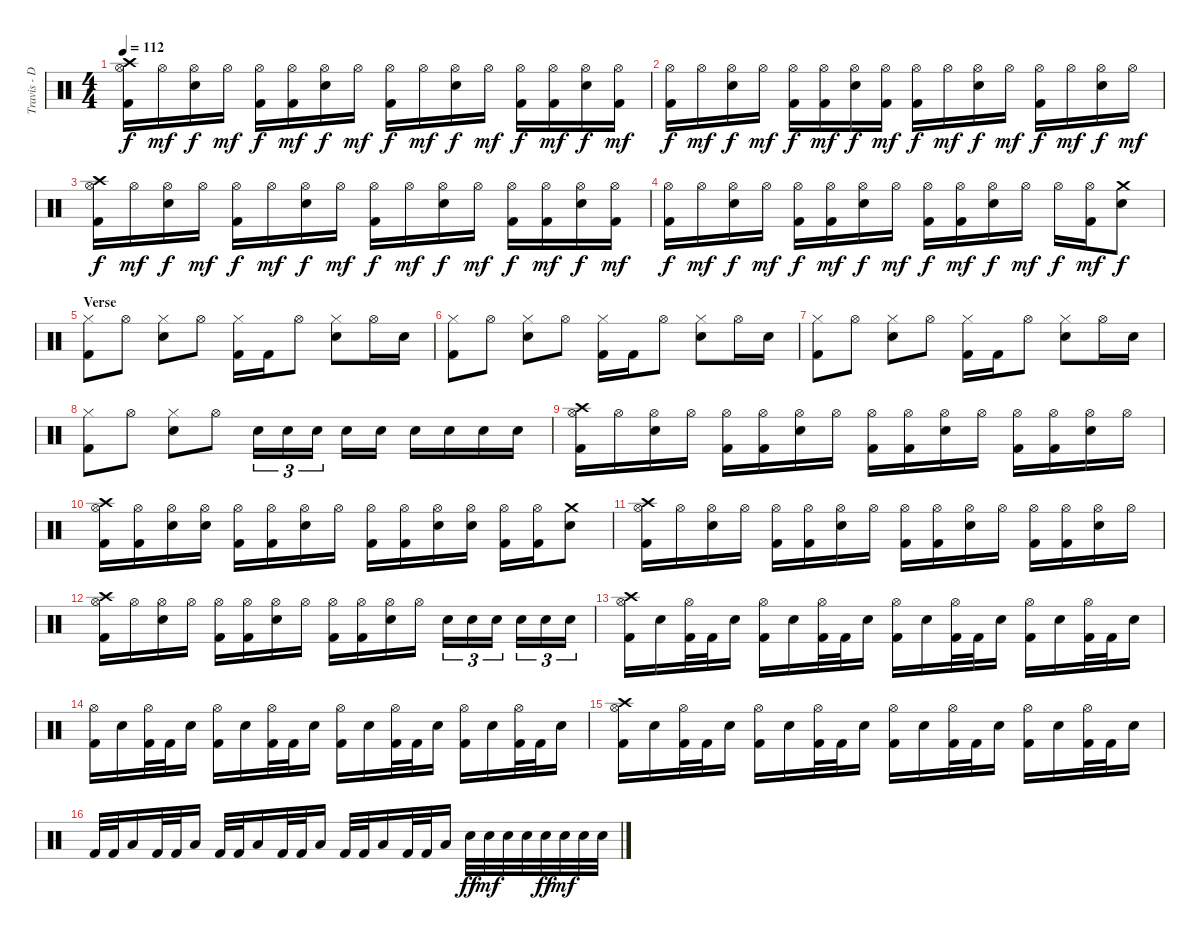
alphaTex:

\track ("Travis - Drums" "Travis - D") {instrument percussion}
\staff {score}
\articulation defaults
\ts (4 4)
\tempo 112
\clef neutral
\ks c
("Crash high (hit)" "Hi-Hat (open)" "Kick (hit) 2").16{dy f} "Hi-Hat (open)".16{dy mf} ("Hi-Hat (open)" "Electric Snare (hit)").16{dy f} "Hi-Hat (open)".16{dy mf} ("Hi-Hat (open)" "Kick (hit) 2").16{dy f} ("Hi-Hat (open)" "Kick (hit) 2").16{dy mf} ("Hi-Hat (open)" "Electric Snare (hit)").16{dy f} "Hi-Hat (open)".16{dy mf} ("Hi-Hat (open)" "Kick (hit) 2").16{dy f} "Hi-Hat (open)".16{dy mf} ("Hi-Hat (open)" "Electric Snare (hit)").16{dy f} "Hi-Hat (open)".16{dy mf} ("Hi-Hat (open)" "Kick (hit) 2").16{dy f} ("Hi-Hat (open)" "Kick (hit) 2").16{dy mf} ("Hi-Hat (open)" "Electric Snare (hit)").16{dy f} ("Hi-Hat (open)" "Kick (hit) 2").16{dy mf} |
("Hi-Hat (open)" "Kick (hit) 2").16{dy f} "Hi-Hat (open)".16{dy mf} ("Hi-Hat (open)" "Electric Snare (hit)").16{dy f} "Hi-Hat (open)".16{dy mf} ("Hi-Hat (open)" "Kick (hit) 2").16{dy f} ("Hi-Hat (open)" "Kick (hit) 2").16{dy mf} ("Hi-Hat (open)" "Electric Snare (hit)").16{dy f} ("Hi-Hat (open)" "Kick (hit) 2").16{dy mf} ("Hi-Hat (open)" "Kick (hit) 2").16{dy f} "Hi-Hat (open)".16{dy mf} ("Hi-Hat (open)" "Electric Snare (hit)").16{dy f} "Hi-Hat (open)".16{dy mf} ("Hi-Hat (open)" "Kick (hit) 2").16{dy f} "Hi-Hat (open)".16{dy mf} ("Hi-Hat (open)" "Electric Snare (hit)").16{dy f} "Hi-Hat (open)".16{dy mf} |
("Crash high (hit)" "Hi-Hat (open)" "Kick (hit) 2").16{dy f} "Hi-Hat (open)".16{dy mf} ("Hi-Hat (open)" "Electric Snare (hit)").16{dy f} "Hi-Hat (open)".16{dy mf} ("Hi-Hat (open)" "Kick (hit) 2").16{dy f} "Hi-Hat (open)".16{dy mf} ("Hi-Hat (open)" "Electric Snare (hit)").16{dy f} "Hi-Hat (open)".16{dy mf} ("Hi-Hat (open)" "Kick (hit) 2").16{dy f} "Hi-Hat (open)".16{dy mf} ("Hi-Hat (open)" "Electric Snare (hit)").16{dy f} "Hi-Hat (open)".16{dy mf} ("Hi-Hat (open)" "Kick (hit) 2").16{dy f} ("Hi-Hat (open)" "Kick (hit) 2").16{dy mf} ("Hi-Hat (open)" "Electric Snare (hit)").16{dy f} ("Hi-Hat (open)" "Kick (hit) 2").16{dy mf} |
("Hi-Hat (open)" "Kick (hit) 2").16{dy f} "Hi-Hat (open)".16{dy mf} ("Hi-Hat (open)" "Electric Snare (hit)").16{dy f} "Hi-Hat (open)".16{dy mf} ("Hi-Hat (open)" "Kick (hit) 2").16{dy f} ("Hi-Hat (open)" "Kick (hit) 2").16{dy mf} ("Hi-Hat (open)" "Electric Snare (hit)").16{dy f} "Hi-Hat (open)".16{dy mf} ("Hi-Hat (open)" "Kick (hit) 2").16{dy f} ("Hi-Hat (open)" "Kick (hit) 2").16{dy mf} ("Hi-Hat (open)" "Electric Snare (hit)").16{dy f} "Hi-Hat (open)".16{dy mf} "Hi-Hat (open)".16{dy f} ("Hi-Hat (open)" "Kick (hit) 2").16{dy mf} ("Crash medium (hit)" "Electric Snare (hit)").8{dy f} |
\section ("" "Verse")
("Hi-Hat (closed)" "Kick (hit) 2").8 "Hi-Hat (open)".8 ("Hi-Hat (closed)" "Electric Snare (hit)").8 "Hi-Hat (open)".8 ("Hi-Hat (closed)" "Kick (hit) 2").16 "Kick (hit) 2".16 "Hi-Hat (open)".8 ("Hi-Hat (closed)" "Electric Snare (hit)").8 "Hi-Hat (open)".16 "Electric Snare (hit)".16 |
("Hi-Hat (closed)" "Kick (hit) 2").8 "Hi-Hat (open)".8 ("Hi-Hat (closed)" "Electric Snare (hit)").8 "Hi-Hat (open)".8 ("Hi-Hat (closed)" "Kick (hit) 2").16 "Kick (hit) 2".16 "Hi-Hat (open)".8 ("Hi-Hat (closed)" "Electric Snare (hit)").8 "Hi-Hat (open)".16 "Electric Snare (hit)".16 |
("Hi-Hat (closed)" "Kick (hit) 2").8 "Hi-Hat (open)".8 ("Hi-Hat (closed)" "Electric Snare (hit)").8 "Hi-Hat (open)".8 ("Hi-Hat (closed)" "Kick (hit) 2").16 "Kick (hit) 2".16 "Hi-Hat (open)".8 ("Hi-Hat (closed)" "Electric Snare (hit)").8 "Hi-Hat (open)".16 "Electric Snare (hit)".16 |
("Hi-Hat (closed)" "Kick (hit) 2").8 "Hi-Hat (open)".8 ("Hi-Hat (closed)" "Electric Snare (hit)").8 "Hi-Hat (open)".8 "Electric Snare (hit)".16{tu (3 2)} "Electric Snare (hit)".16{tu (3 2)} "Electric Snare (hit)".16{tu (3 2)} "Electric Snare (hit)".16 "Electric Snare (hit)".16 "Electric Snare (hit)".16 "Electric Snare (hit)".16 "Electric Snare (hit)".16 "Electric Snare (hit)".16 |
("Crash high (hit)" "Hi-Hat (open)" "Kick (hit) 2").16 "Hi-Hat (open)".16 ("Hi-Hat (open)" "Electric Snare (hit)").16 "Hi-Hat (open)".16 ("Hi-Hat (open)" "Kick (hit) 2").16 ("Hi-Hat (open)" "Kick (hit) 2").16 ("Hi-Hat (open)" "Electric Snare (hit)").16 "Hi-Hat (open)".16 ("Hi-Hat (open)" "Kick (hit) 2").16 ("Hi-Hat (open)" "Kick (hit) 2").16 ("Hi-Hat (open)" "Electric Snare (hit)").16 "Hi-Hat (open)".16 ("Hi-Hat (open)" "Kick (hit) 2").16 ("Hi-Hat (open)" "Kick (hit) 2").16 ("Hi-Hat (open)" "Electric Snare (hit)").16 "Hi-Hat (open)".16 |
("Crash high (hit)" "Hi-Hat (open)" "Kick (hit) 2").16 ("Hi-Hat (open)" "Kick (hit) 2").16 ("Hi-Hat (open)" "Electric Snare (hit)").16 ("Hi-Hat (open)" "Electric Snare (hit)").16 ("Hi-Hat (open)" "Kick (hit) 2").16 ("Hi-Hat (open)" "Kick (hit) 2").16 ("Hi-Hat (open)" "Electric Snare (hit)").16 "Hi-Hat (open)".16 ("Hi-Hat (open)" "Kick (hit) 2").16 ("Hi-Hat (open)" "Kick (hit) 2").16 ("Hi-Hat (open)" "Electric Snare (hit)").16 ("Hi-Hat (open)" "Electric Snare (hit)").16 ("Hi-Hat (open)" "Kick (hit) 2").16 ("Hi-Hat (open)" "Kick (hit) 2").16 ("Crash medium (hit)" "Electric Snare (hit)").8 |
("Crash high (hit)" "Hi-Hat (open)" "Kick (hit) 2").16 "Hi-Hat (open)".16 ("Hi-Hat (open)" "Electric Snare (hit)").16 "Hi-Hat (open)".16 ("Hi-Hat (open)" "Kick (hit) 2").16 ("Hi-Hat (open)" "Kick (hit) 2").16 ("Hi-Hat (open)" "Electric Snare (hit)").16 "Hi-Hat (open)".16 ("Hi-Hat (open)" "Kick (hit) 2").16 ("Hi-Hat (open)" "Kick (hit) 2").16 ("Hi-Hat (open)" "Electric Snare (hit)").16 "Hi-Hat (open)".16 ("Hi-Hat (open)" "Kick (hit) 2").16 ("Hi-Hat (open)" "Kick (hit) 2").16 ("Hi-Hat (open)" "Electric Snare (hit)").16 "Hi-Hat (open)".16 |
("Crash high (hit)" "Hi-Hat (open)" "Kick (hit) 2").16 "Hi-Hat (open)".16 ("Hi-Hat (open)" "Electric Snare (hit)").16 "Hi-Hat (open)".16 ("Hi-Hat (open)" "Kick (hit) 2").16 ("Hi-Hat (open)" "Kick (hit) 2").16 ("Hi-Hat (open)" "Electric Snare (hit)").16 "Hi-Hat (open)".16 ("Hi-Hat (open)" "Kick (hit) 2").16 ("Hi-Hat (open)" "Kick (hit) 2").16 ("Hi-Hat (open)" "Electric Snare (hit)").16 "Hi-Hat (open)".16 "Electric Snare (hit)".16{tu (3 2)} "Electric Snare (hit)".16{tu (3 2)} "Electric Snare (hit)".16{tu (3 2)} "Electric Snare (hit)".16{tu (3 2)} "Electric Snare (hit)".16{tu (3 2)} "Electric Snare (hit)".16{tu (3 2)} |
("Crash high (hit)" "Hi-Hat (open)" "Kick (hit) 2").16 "Electric Snare (hit)".16 ("Hi-Hat (open)" "Kick (hit) 2").32 "Kick (hit) 2".32 "Electric Snare (hit)".16 ("Hi-Hat (open)" "Kick (hit) 2").16 "Electric Snare (hit)".16 ("Hi-Hat (open)" "Kick (hit) 2").32 "Kick (hit) 2".32 "Electric Snare (hit)".16 ("Hi-Hat (open)" "Kick (hit) 2").16 "Electric Snare (hit)".16 ("Hi-Hat (open)" "Kick (hit) 2").32 "Kick (hit) 2".32 "Electric Snare (hit)".16 ("Hi-Hat (open)" "Kick (hit) 2").16 "Electric Snare (hit)".16 ("Hi-Hat (open)" "Kick (hit) 2").32 "Kick (hit) 2".32 "Electric Snare (hit)".16 |
("Hi-Hat (open)" "Kick (hit) 2").16 "Electric Snare (hit)".16 ("Hi-Hat (open)" "Kick (hit) 2").32 "Kick (hit) 2".32 "Electric Snare (hit)".16 ("Hi-Hat (open)" "Kick (hit) 2").16 "Electric Snare (hit)".16 ("Hi-Hat (open)" "Kick (hit) 2").32 "Kick (hit) 2".32 "Electric Snare (hit)".16 ("Hi-Hat (open)" "Kick (hit) 2").16 "Electric Snare (hit)".16 ("Hi-Hat (open)" "Kick (hit) 2").32 "Kick (hit) 2".32 "Electric Snare (hit)".16 ("Hi-Hat (open)" "Kick (hit) 2").16 "Electric Snare (hit)".16 ("Hi-Hat (open)" "Kick (hit) 2").32 "Kick (hit) 2".32 "Electric Snare (hit)".16 |
("Crash high (hit)" "Hi-Hat (open)" "Kick (hit) 2").16 "Electric Snare (hit)".16 ("Hi-Hat (open)" "Kick (hit) 2").32 "Kick (hit) 2".32 "Electric Snare (hit)".16 ("Hi-Hat (open)" "Kick (hit) 2").16 "Electric Snare (hit)".16 ("Hi-Hat (open)" "Kick (hit) 2").32 "Kick (hit) 2".32 "Electric Snare (hit)".16 ("Hi-Hat (open)" "Kick (hit) 2").16 "Electric Snare (hit)".16 ("Hi-Hat (open)" "Kick (hit) 2").32 "Kick (hit) 2".32 "Electric Snare (hit)".16 ("Hi-Hat (open)" "Kick (hit) 2").16 "Electric Snare (hit)".16 ("Hi-Hat (open)" "Kick (hit) 2").32 "Kick (hit) 2".32 "Electric Snare (hit)".16 |
"Kick (hit) 2".32 "Kick (hit) 2".32 "Low Tom (hit)".16 "Kick (hit) 2".32 "Kick (hit) 2".32 "Low Tom (hit)".16 "Kick (hit) 2".32 "Kick (hit) 2".32 "Low Tom (hit)".16 "Kick (hit) 2".32 "Kick (hit) 2".32 "Low Tom (hit)".16 "Kick (hit) 2".32 "Kick (hit) 2".32 "Low Tom (hit)".16 "Kick (hit) 2".32 "Kick (hit) 2".32 "Low Tom (hit)".16 "Electric Snare (hit)".32{dy ff} "Electric Snare (hit)".32{dy mf} "Electric Snare (hit)".32 "Electric Snare (hit)".32 "Electric Snare (hit)".32{dy ff} "Electric Snare (hit)".32{dy mf} "Electric Snare (hit)".32 "Electric Snare (hit)".32
